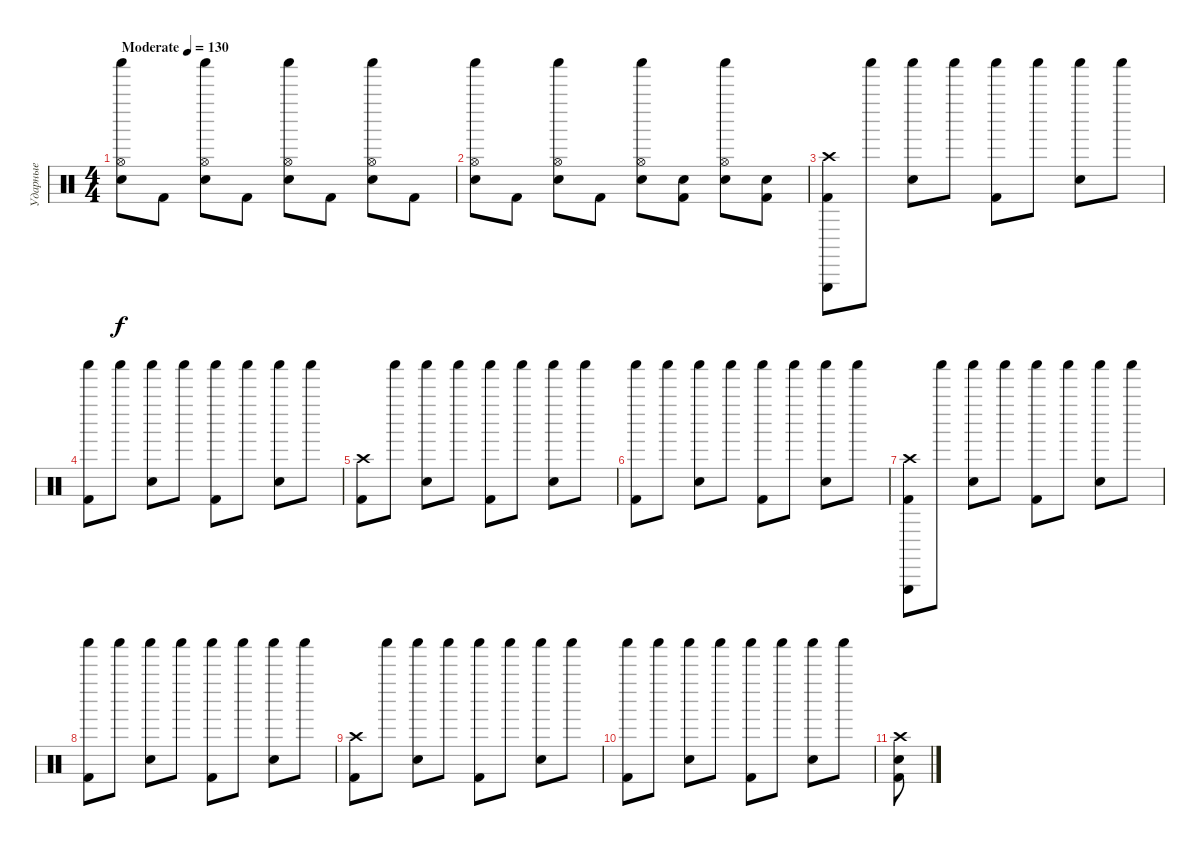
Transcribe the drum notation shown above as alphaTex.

\track ("Ударные" "Ударные") {instrument percussion}
\staff {score}
\articulation defaults
\ts (4 4)
\tempo (130 "Moderate")
\clef neutral
\ks c
("Hi-Hat (open)" "Shaker (hit)" "Snare (hit) 2").8{dy f} "Kick (hit) 2".8 ("Hi-Hat (open)" "Shaker (hit)" "Snare (hit) 2").8 "Kick (hit) 2".8 ("Hi-Hat (open)" "Shaker (hit)" "Snare (hit) 2").8 "Kick (hit) 2".8 ("Hi-Hat (open)" "Shaker (hit)" "Snare (hit) 2").8 "Kick (hit) 2".8 |
("Hi-Hat (open)" "Shaker (hit)" "Snare (hit) 2").8 "Kick (hit) 2".8 ("Hi-Hat (open)" "Shaker (hit)" "Snare (hit) 2").8 "Kick (hit) 2".8 ("Hi-Hat (open)" "Shaker (hit)" "Snare (hit) 2").8 ("Snare (hit) 2" "Kick (hit) 2").8 ("Hi-Hat (open)" "Shaker (hit)" "Snare (hit) 2").8 ("Snare (hit) 2" "Kick (hit) 2").8 |
("Crash high (hit)" "Triangle (hit)" "Kick (hit) 2").8 "Shaker (hit)".8 ("Shaker (hit)" "Snare (hit) 2").8 "Shaker (hit)".8 ("Shaker (hit)" "Kick (hit) 2").8 "Shaker (hit)".8 ("Shaker (hit)" "Snare (hit) 2").8 "Shaker (hit)".8 |
("Shaker (hit)" "Kick (hit) 2").8 "Shaker (hit)".8 ("Shaker (hit)" "Snare (hit) 2").8 "Shaker (hit)".8 ("Shaker (hit)" "Kick (hit) 2").8 "Shaker (hit)".8 ("Shaker (hit)" "Snare (hit) 2").8 "Shaker (hit)".8 |
("Crash high (hit)" "Kick (hit) 2").8 "Shaker (hit)".8 ("Shaker (hit)" "Snare (hit) 2").8 "Shaker (hit)".8 ("Shaker (hit)" "Kick (hit) 2").8 "Shaker (hit)".8 ("Shaker (hit)" "Snare (hit) 2").8 "Shaker (hit)".8 |
("Shaker (hit)" "Kick (hit) 2").8 "Shaker (hit)".8 ("Shaker (hit)" "Snare (hit) 2").8 "Shaker (hit)".8 ("Shaker (hit)" "Kick (hit) 2").8 "Shaker (hit)".8 ("Shaker (hit)" "Snare (hit) 2").8 "Shaker (hit)".8 |
("Crash high (hit)" "Triangle (hit)" "Kick (hit) 2").8 "Shaker (hit)".8 ("Shaker (hit)" "Snare (hit) 2").8 "Shaker (hit)".8 ("Shaker (hit)" "Kick (hit) 2").8 "Shaker (hit)".8 ("Shaker (hit)" "Snare (hit) 2").8 "Shaker (hit)".8 |
("Shaker (hit)" "Kick (hit) 2").8 "Shaker (hit)".8 ("Shaker (hit)" "Snare (hit) 2").8 "Shaker (hit)".8 ("Shaker (hit)" "Kick (hit) 2").8 "Shaker (hit)".8 ("Shaker (hit)" "Snare (hit) 2").8 "Shaker (hit)".8 |
("Crash high (hit)" "Kick (hit) 2").8 "Shaker (hit)".8 ("Shaker (hit)" "Snare (hit) 2").8 "Shaker (hit)".8 ("Shaker (hit)" "Kick (hit) 2").8 "Shaker (hit)".8 ("Shaker (hit)" "Snare (hit) 2").8 "Shaker (hit)".8 |
("Shaker (hit)" "Kick (hit) 2").8 "Shaker (hit)".8 ("Shaker (hit)" "Snare (hit) 2").8 "Shaker (hit)".8 ("Shaker (hit)" "Kick (hit) 2").8 "Shaker (hit)".8 ("Shaker (hit)" "Snare (hit) 2").8 "Shaker (hit)".8 |
("Crash high (hit)" "Snare (hit) 2" "Kick (hit) 2").8
